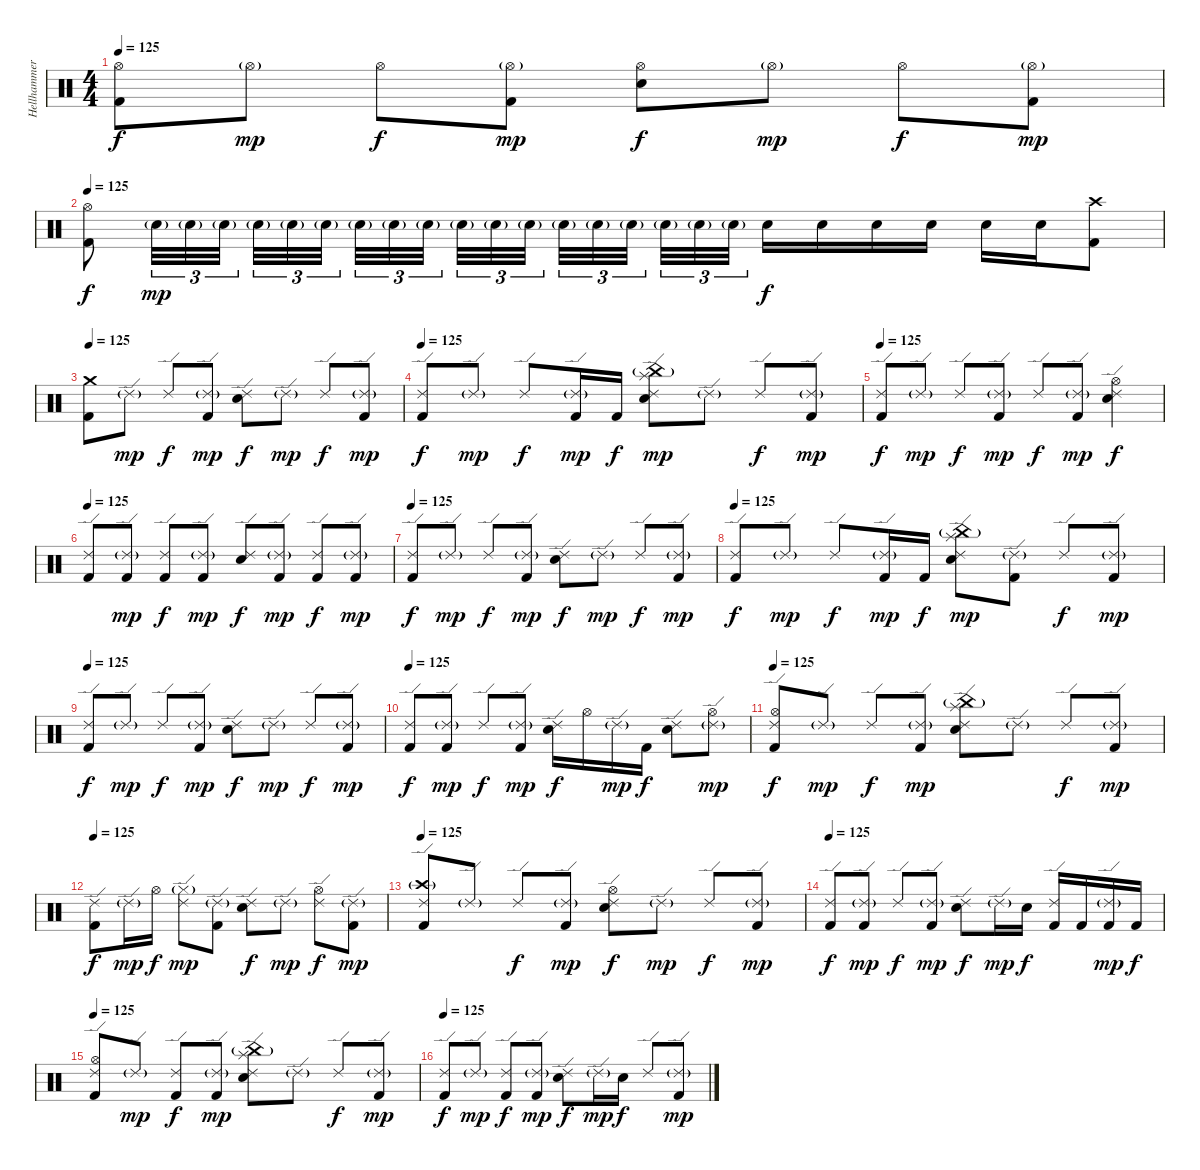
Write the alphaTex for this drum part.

\track ("Hellhammer" "Hellhammer") {instrument percussion}
\staff {score}
\articulation defaults
\ts (4 4)
\tempo 125
\clef neutral
\ks c
("Kick (hit) 2" "Hi-Hat (open)").8{dy f} "Hi-Hat (open)"{g}.8{dy mp} "Hi-Hat (open)".8{dy f} ("Kick (hit) 2" "Hi-Hat (open)"{g}).8{dy mp} ("Electric Snare (hit)" "Hi-Hat (open)").8{dy f} "Hi-Hat (open)"{g}.8{dy mp} "Hi-Hat (open)".8{dy f} ("Kick (hit) 2" "Hi-Hat (open)"{g}).8{dy mp} |
\tempo 125
("Kick (hit) 2" "Hi-Hat (open)").8{dy f} "Electric Snare (hit)"{g}.32{tu (3 2) dy mp} "Electric Snare (hit)"{g}.32{tu (3 2)} "Electric Snare (hit)"{g}.32{tu (3 2)} "Electric Snare (hit)"{g}.32{tu (3 2)} "Electric Snare (hit)"{g}.32{tu (3 2)} "Electric Snare (hit)"{g}.32{tu (3 2)} "Electric Snare (hit)"{g}.32{tu (3 2)} "Electric Snare (hit)"{g}.32{tu (3 2)} "Electric Snare (hit)"{g}.32{tu (3 2)} "Electric Snare (hit)"{g}.32{tu (3 2)} "Electric Snare (hit)"{g}.32{tu (3 2)} "Electric Snare (hit)"{g}.32{tu (3 2)} "Electric Snare (hit)"{g}.32{tu (3 2)} "Electric Snare (hit)"{g}.32{tu (3 2)} "Electric Snare (hit)"{g}.32{tu (3 2)} "Electric Snare (hit)"{g}.32{tu (3 2)} "Electric Snare (hit)"{g}.32{tu (3 2)} "Electric Snare (hit)"{g}.32{tu (3 2)} "Electric Snare (hit)".16{dy f} "Electric Snare (hit)".16 "Electric Snare (hit)".16 "Electric Snare (hit)".16 "Electric Snare (hit)".16 "Electric Snare (hit)".16 ("Kick (hit) 2" "Crash high (hit)").8 |
\tempo 125
("Kick (hit) 2" "Crash medium (hit)").8 "Ride (edge) 2"{g}.8{dy mp} "Ride (edge) 2".8{dy f} ("Kick (hit) 2" "Ride (edge) 2"{g}).8{dy mp} ("Electric Snare (hit)" "Ride (edge) 2").8{dy f} "Ride (edge) 2"{g}.8{dy mp} "Ride (edge) 2".8{dy f} ("Kick (hit) 2" "Ride (edge) 2"{g}).8{dy mp} |
\tempo 125
("Kick (hit) 2" "Ride (edge) 2").8{dy f} "Ride (edge) 2"{g}.8{dy mp} "Ride (edge) 2".8{dy f} ("Kick (hit) 2" "Ride (edge) 2"{g}).16{dy mp} "Kick (hit) 2".16{dy f} ("Electric Snare (hit)" "Ride (edge) 2" "Splash (hit)" "China (hit)"{g}).8{dy mp} "Ride (edge) 2"{g}.8 "Ride (edge) 2".8{dy f} ("Kick (hit) 2" "Ride (edge) 2"{g}).8{dy mp} |
\tempo 125
("Kick (hit) 2" "Ride (edge) 2").8{dy f} "Ride (edge) 2"{g}.8{dy mp} "Ride (edge) 2".8{dy f} ("Kick (hit) 2" "Ride (edge) 2"{g}).8{dy mp} "Ride (edge) 2".8{dy f} ("Kick (hit) 2" "Ride (edge) 2"{g}).8{dy mp} ("Electric Snare (hit)" "Ride (edge) 2" "Hi-Hat (open)").4{dy f} |
\tempo 125
("Kick (hit) 2" "Ride (edge) 2").8 ("Kick (hit) 2" "Ride (edge) 2"{g}).8{dy mp} ("Kick (hit) 2" "Ride (edge) 2").8{dy f} ("Kick (hit) 2" "Ride (edge) 2"{g}).8{dy mp} ("Electric Snare (hit)" "Ride (edge) 2").8{dy f} ("Kick (hit) 2" "Ride (edge) 2"{g}).8{dy mp} ("Kick (hit) 2" "Ride (edge) 2").8{dy f} ("Kick (hit) 2" "Ride (edge) 2"{g}).8{dy mp} |
\tempo 125
("Kick (hit) 2" "Ride (edge) 2").8{dy f} "Ride (edge) 2"{g}.8{dy mp} "Ride (edge) 2".8{dy f} ("Kick (hit) 2" "Ride (edge) 2"{g}).8{dy mp} ("Electric Snare (hit)" "Ride (edge) 2").8{dy f} "Ride (edge) 2"{g}.8{dy mp} "Ride (edge) 2".8{dy f} ("Kick (hit) 2" "Ride (edge) 2"{g}).8{dy mp} |
\tempo 125
("Kick (hit) 2" "Ride (edge) 2").8{dy f} "Ride (edge) 2"{g}.8{dy mp} "Ride (edge) 2".8{dy f} ("Kick (hit) 2" "Ride (edge) 2"{g}).16{dy mp} "Kick (hit) 2".16{dy f} ("Electric Snare (hit)" "Ride (edge) 2" "Splash (hit)" "China (hit)"{g}).8{dy mp} ("Kick (hit) 2" "Ride (edge) 2"{g}).8 "Ride (edge) 2".8{dy f} ("Kick (hit) 2" "Ride (edge) 2"{g}).8{dy mp} |
\tempo 125
("Kick (hit) 2" "Ride (edge) 2").8{dy f} "Ride (edge) 2"{g}.8{dy mp} "Ride (edge) 2".8{dy f} ("Kick (hit) 2" "Ride (edge) 2"{g}).8{dy mp} ("Electric Snare (hit)" "Ride (edge) 2").8{dy f} "Ride (edge) 2"{g}.8{dy mp} "Ride (edge) 2".8{dy f} ("Kick (hit) 2" "Ride (edge) 2"{g}).8{dy mp} |
\tempo 125
("Kick (hit) 2" "Ride (edge) 2").8{dy f} ("Kick (hit) 2" "Ride (edge) 2"{g}).8{dy mp} "Ride (edge) 2".8{dy f} ("Kick (hit) 2" "Ride (edge) 2"{g}).8{dy mp} ("Electric Snare (hit)" "Ride (edge) 2").16{dy f} "Hi-Hat (open)".16 "Ride (edge) 2"{g}.16{dy mp} "Kick (hit) 2".16{dy f} ("Electric Snare (hit)" "Ride (edge) 2").8 ("Ride (edge) 2"{g} "Hi-Hat (open)").8{dy mp} |
\tempo 125
("Kick (hit) 2" "Ride (edge) 2" "Hi-Hat (open)").8{dy f} "Ride (edge) 2"{g}.8{dy mp} "Ride (edge) 2".8{dy f} ("Kick (hit) 2" "Ride (edge) 2"{g}).8{dy mp} ("Electric Snare (hit)" "Ride (edge) 2" "Splash (hit)" "China (hit)"{g}).8 "Ride (edge) 2"{g}.8 "Ride (edge) 2".8{dy f} ("Kick (hit) 2" "Ride (edge) 2"{g}).8{dy mp} |
\tempo 125
("Kick (hit) 2" "Ride (edge) 2").8{dy f} "Ride (edge) 2"{g}.16{dy mp} "Hi-Hat (open)".16{dy f} ("Ride (edge) 2" "Hi-Hat (closed)"{g}).8{dy mp} ("Kick (hit) 2" "Ride (edge) 2"{g}).8 ("Electric Snare (hit)" "Ride (edge) 2").8{dy f} "Ride (edge) 2"{g}.8{dy mp} ("Ride (edge) 2" "Hi-Hat (open)").8{dy f} ("Kick (hit) 2" "Ride (edge) 2"{g}).8{dy mp} |
\tempo 125
("Kick (hit) 2" "Ride (edge) 2" "Crash high (hit)"{g}).8 "Ride (edge) 2"{g}.8 "Ride (edge) 2".8{dy f} ("Kick (hit) 2" "Ride (edge) 2"{g}).8{dy mp} ("Electric Snare (hit)" "Ride (edge) 2" "Hi-Hat (open)").8{dy f} "Ride (edge) 2"{g}.8{dy mp} "Ride (edge) 2".8{dy f} ("Kick (hit) 2" "Ride (edge) 2"{g}).8{dy mp} |
\tempo 125
("Kick (hit) 2" "Ride (edge) 2").8{dy f} ("Kick (hit) 2" "Ride (edge) 2"{g}).8{dy mp} "Ride (edge) 2".8{dy f} ("Kick (hit) 2" "Ride (edge) 2"{g}).8{dy mp} ("Electric Snare (hit)" "Ride (edge) 2").8{dy f} "Ride (edge) 2"{g}.16{dy mp} "Electric Snare (hit)".16{dy f} ("Kick (hit) 2" "Ride (edge) 2").16 "Kick (hit) 2".16 ("Kick (hit) 2" "Ride (edge) 2"{g}).16{dy mp} "Kick (hit) 2".16{dy f} |
\tempo 125
("Kick (hit) 2" "Ride (edge) 2" "Hi-Hat (open)").8 "Ride (edge) 2"{g}.8{dy mp} ("Kick (hit) 2" "Ride (edge) 2").8{dy f} ("Kick (hit) 2" "Ride (edge) 2"{g}).8{dy mp} ("Electric Snare (hit)" "Ride (edge) 2" "Splash (hit)" "China (hit)"{g}).8 "Ride (edge) 2"{g}.8 "Ride (edge) 2".8{dy f} ("Kick (hit) 2" "Ride (edge) 2"{g}).8{dy mp} |
\tempo 125
("Kick (hit) 2" "Ride (edge) 2").8{dy f} "Ride (edge) 2"{g}.8{dy mp} ("Kick (hit) 2" "Ride (edge) 2").8{dy f} ("Kick (hit) 2" "Ride (edge) 2"{g}).8{dy mp} ("Electric Snare (hit)" "Ride (edge) 2").8{dy f} "Ride (edge) 2"{g}.16{dy mp} "Electric Snare (hit)".16{dy f} "Ride (edge) 2".8 ("Kick (hit) 2" "Ride (edge) 2"{g}).8{dy mp}
